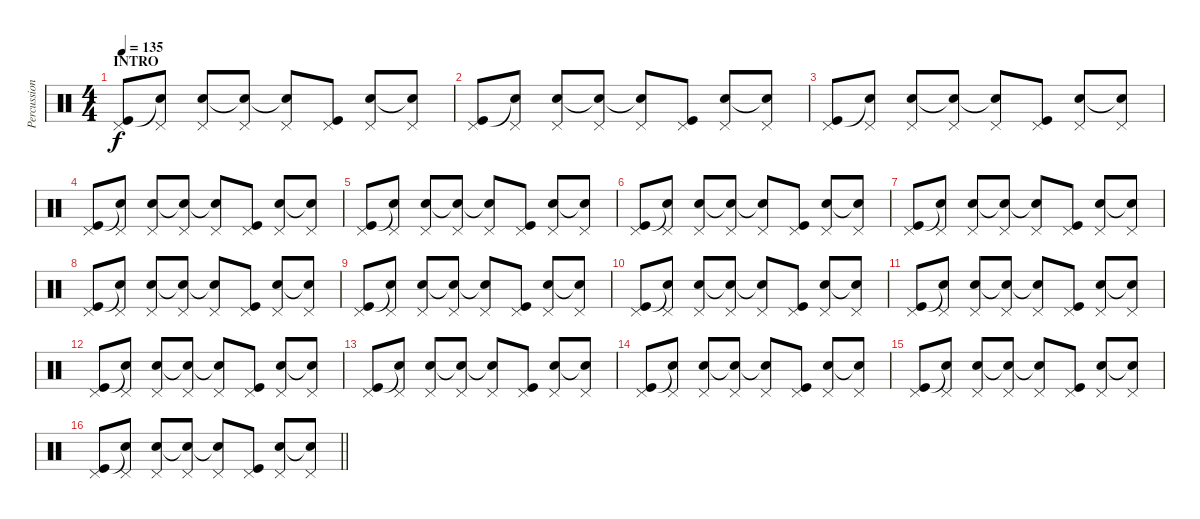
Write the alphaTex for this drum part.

\track ("Percussions" "Percussion") {instrument percussion}
\staff {score}
\articulation defaults
\ts (4 4)
\section ("" "INTRO")
\tempo 135
\clef neutral
\ks c
("Pedal Hi-Hat (hit)" "Kick (hit)").8{dy f} ("Pedal Hi-Hat (hit)" "Snare (hit)"{t}).8 ("Pedal Hi-Hat (hit)" "Electric Snare (hit)").8 ("Pedal Hi-Hat (hit)" "Snare (hit)"{t}).8 ("Pedal Hi-Hat (hit)" "Snare (hit)"{t}).8 ("Pedal Hi-Hat (hit)" "Kick (hit)").8 ("Pedal Hi-Hat (hit)" "Electric Snare (hit)").8 ("Pedal Hi-Hat (hit)" "Snare (hit)"{t}).8 |
("Pedal Hi-Hat (hit)" "Kick (hit)").8 ("Pedal Hi-Hat (hit)" "Snare (hit)"{t}).8 ("Pedal Hi-Hat (hit)" "Electric Snare (hit)").8 ("Pedal Hi-Hat (hit)" "Snare (hit)"{t}).8 ("Pedal Hi-Hat (hit)" "Snare (hit)"{t}).8 ("Pedal Hi-Hat (hit)" "Kick (hit)").8 ("Pedal Hi-Hat (hit)" "Electric Snare (hit)").8 ("Pedal Hi-Hat (hit)" "Snare (hit)"{t}).8 |
("Pedal Hi-Hat (hit)" "Kick (hit)").8 ("Pedal Hi-Hat (hit)" "Snare (hit)"{t}).8 ("Pedal Hi-Hat (hit)" "Electric Snare (hit)").8 ("Pedal Hi-Hat (hit)" "Snare (hit)"{t}).8 ("Pedal Hi-Hat (hit)" "Snare (hit)"{t}).8 ("Pedal Hi-Hat (hit)" "Kick (hit)").8 ("Pedal Hi-Hat (hit)" "Electric Snare (hit)").8 ("Pedal Hi-Hat (hit)" "Snare (hit)"{t}).8 |
("Pedal Hi-Hat (hit)" "Kick (hit)").8 ("Pedal Hi-Hat (hit)" "Snare (hit)"{t}).8 ("Pedal Hi-Hat (hit)" "Electric Snare (hit)").8 ("Pedal Hi-Hat (hit)" "Snare (hit)"{t}).8 ("Pedal Hi-Hat (hit)" "Snare (hit)"{t}).8 ("Pedal Hi-Hat (hit)" "Kick (hit)").8 ("Pedal Hi-Hat (hit)" "Electric Snare (hit)").8 ("Pedal Hi-Hat (hit)" "Snare (hit)"{t}).8 |
("Pedal Hi-Hat (hit)" "Kick (hit)").8 ("Pedal Hi-Hat (hit)" "Snare (hit)"{t}).8 ("Pedal Hi-Hat (hit)" "Electric Snare (hit)").8 ("Pedal Hi-Hat (hit)" "Snare (hit)"{t}).8 ("Pedal Hi-Hat (hit)" "Snare (hit)"{t}).8 ("Pedal Hi-Hat (hit)" "Kick (hit)").8 ("Pedal Hi-Hat (hit)" "Electric Snare (hit)").8 ("Pedal Hi-Hat (hit)" "Snare (hit)"{t}).8 |
("Pedal Hi-Hat (hit)" "Kick (hit)").8 ("Pedal Hi-Hat (hit)" "Snare (hit)"{t}).8 ("Pedal Hi-Hat (hit)" "Electric Snare (hit)").8 ("Pedal Hi-Hat (hit)" "Snare (hit)"{t}).8 ("Pedal Hi-Hat (hit)" "Snare (hit)"{t}).8 ("Pedal Hi-Hat (hit)" "Kick (hit)").8 ("Pedal Hi-Hat (hit)" "Electric Snare (hit)").8 ("Pedal Hi-Hat (hit)" "Snare (hit)"{t}).8 |
("Pedal Hi-Hat (hit)" "Kick (hit)").8 ("Pedal Hi-Hat (hit)" "Snare (hit)"{t}).8 ("Pedal Hi-Hat (hit)" "Electric Snare (hit)").8 ("Pedal Hi-Hat (hit)" "Snare (hit)"{t}).8 ("Pedal Hi-Hat (hit)" "Snare (hit)"{t}).8 ("Pedal Hi-Hat (hit)" "Kick (hit)").8 ("Pedal Hi-Hat (hit)" "Electric Snare (hit)").8 ("Pedal Hi-Hat (hit)" "Snare (hit)"{t}).8 |
("Pedal Hi-Hat (hit)" "Kick (hit)").8 ("Pedal Hi-Hat (hit)" "Snare (hit)"{t}).8 ("Pedal Hi-Hat (hit)" "Electric Snare (hit)").8 ("Pedal Hi-Hat (hit)" "Snare (hit)"{t}).8 ("Pedal Hi-Hat (hit)" "Snare (hit)"{t}).8 ("Pedal Hi-Hat (hit)" "Kick (hit)").8 ("Pedal Hi-Hat (hit)" "Electric Snare (hit)").8 ("Pedal Hi-Hat (hit)" "Snare (hit)"{t}).8 |
("Pedal Hi-Hat (hit)" "Kick (hit)").8 ("Pedal Hi-Hat (hit)" "Snare (hit)"{t}).8 ("Pedal Hi-Hat (hit)" "Electric Snare (hit)").8 ("Pedal Hi-Hat (hit)" "Snare (hit)"{t}).8 ("Pedal Hi-Hat (hit)" "Snare (hit)"{t}).8 ("Pedal Hi-Hat (hit)" "Kick (hit)").8 ("Pedal Hi-Hat (hit)" "Electric Snare (hit)").8 ("Pedal Hi-Hat (hit)" "Snare (hit)"{t}).8 |
("Pedal Hi-Hat (hit)" "Kick (hit)").8 ("Pedal Hi-Hat (hit)" "Snare (hit)"{t}).8 ("Pedal Hi-Hat (hit)" "Electric Snare (hit)").8 ("Pedal Hi-Hat (hit)" "Snare (hit)"{t}).8 ("Pedal Hi-Hat (hit)" "Snare (hit)"{t}).8 ("Pedal Hi-Hat (hit)" "Kick (hit)").8 ("Pedal Hi-Hat (hit)" "Electric Snare (hit)").8 ("Pedal Hi-Hat (hit)" "Snare (hit)"{t}).8 |
("Pedal Hi-Hat (hit)" "Kick (hit)").8 ("Pedal Hi-Hat (hit)" "Snare (hit)"{t}).8 ("Pedal Hi-Hat (hit)" "Electric Snare (hit)").8 ("Pedal Hi-Hat (hit)" "Snare (hit)"{t}).8 ("Pedal Hi-Hat (hit)" "Snare (hit)"{t}).8 ("Pedal Hi-Hat (hit)" "Kick (hit)").8 ("Pedal Hi-Hat (hit)" "Electric Snare (hit)").8 ("Pedal Hi-Hat (hit)" "Snare (hit)"{t}).8 |
("Pedal Hi-Hat (hit)" "Kick (hit)").8 ("Pedal Hi-Hat (hit)" "Snare (hit)"{t}).8 ("Pedal Hi-Hat (hit)" "Electric Snare (hit)").8 ("Pedal Hi-Hat (hit)" "Snare (hit)"{t}).8 ("Pedal Hi-Hat (hit)" "Snare (hit)"{t}).8 ("Pedal Hi-Hat (hit)" "Kick (hit)").8 ("Pedal Hi-Hat (hit)" "Electric Snare (hit)").8 ("Pedal Hi-Hat (hit)" "Snare (hit)"{t}).8 |
("Pedal Hi-Hat (hit)" "Kick (hit)").8 ("Pedal Hi-Hat (hit)" "Snare (hit)"{t}).8 ("Pedal Hi-Hat (hit)" "Electric Snare (hit)").8 ("Pedal Hi-Hat (hit)" "Snare (hit)"{t}).8 ("Pedal Hi-Hat (hit)" "Snare (hit)"{t}).8 ("Pedal Hi-Hat (hit)" "Kick (hit)").8 ("Pedal Hi-Hat (hit)" "Electric Snare (hit)").8 ("Pedal Hi-Hat (hit)" "Snare (hit)"{t}).8 |
("Pedal Hi-Hat (hit)" "Kick (hit)").8 ("Pedal Hi-Hat (hit)" "Snare (hit)"{t}).8 ("Pedal Hi-Hat (hit)" "Electric Snare (hit)").8 ("Pedal Hi-Hat (hit)" "Snare (hit)"{t}).8 ("Pedal Hi-Hat (hit)" "Snare (hit)"{t}).8 ("Pedal Hi-Hat (hit)" "Kick (hit)").8 ("Pedal Hi-Hat (hit)" "Electric Snare (hit)").8 ("Pedal Hi-Hat (hit)" "Snare (hit)"{t}).8 |
("Pedal Hi-Hat (hit)" "Kick (hit)").8 ("Pedal Hi-Hat (hit)" "Snare (hit)"{t}).8 ("Pedal Hi-Hat (hit)" "Electric Snare (hit)").8 ("Pedal Hi-Hat (hit)" "Snare (hit)"{t}).8 ("Pedal Hi-Hat (hit)" "Snare (hit)"{t}).8 ("Pedal Hi-Hat (hit)" "Kick (hit)").8 ("Pedal Hi-Hat (hit)" "Electric Snare (hit)").8 ("Pedal Hi-Hat (hit)" "Snare (hit)"{t}).8 |
\barLineRight lightlight
("Pedal Hi-Hat (hit)" "Kick (hit)").8 ("Pedal Hi-Hat (hit)" "Snare (hit)"{t}).8 ("Pedal Hi-Hat (hit)" "Electric Snare (hit)").8 ("Pedal Hi-Hat (hit)" "Snare (hit)"{t}).8 ("Pedal Hi-Hat (hit)" "Snare (hit)"{t}).8 ("Pedal Hi-Hat (hit)" "Kick (hit)").8 ("Pedal Hi-Hat (hit)" "Electric Snare (hit)").8 ("Pedal Hi-Hat (hit)" "Snare (hit)"{t}).8
